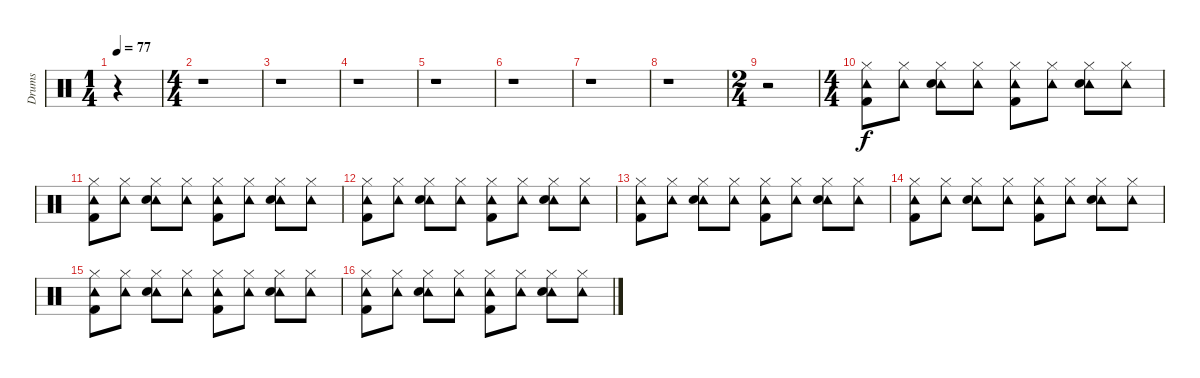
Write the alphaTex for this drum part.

\track ("Drums" "Drums") {instrument percussion}
\staff {score}
\articulation defaults
\ts (1 4)
\tempo 77
\clef neutral
\ks c
r.4{dy f} |
\ts (4 4)
r.1 |
r.1 |
r.1 |
r.1 |
r.1 |
r.1 |
r.1 |
\ts (2 4)
r.2 |
\ts (4 4)
("Tambourine (hit)" "Hi-Hat (closed)" "Kick (hit) 2").8 ("Tambourine (hit)" "Hi-Hat (closed)").8 ("Tambourine (hit)" "Hi-Hat (closed)" "Electric Snare (hit)").8 ("Tambourine (hit)" "Hi-Hat (closed)").8 ("Tambourine (hit)" "Hi-Hat (closed)" "Kick (hit) 2").8 ("Tambourine (hit)" "Hi-Hat (closed)").8 ("Tambourine (hit)" "Hi-Hat (closed)" "Electric Snare (hit)").8 ("Tambourine (hit)" "Hi-Hat (closed)").8 |
("Tambourine (hit)" "Hi-Hat (closed)" "Kick (hit) 2").8 ("Tambourine (hit)" "Hi-Hat (closed)").8 ("Tambourine (hit)" "Hi-Hat (closed)" "Electric Snare (hit)").8 ("Tambourine (hit)" "Hi-Hat (closed)").8 ("Tambourine (hit)" "Hi-Hat (closed)" "Kick (hit) 2").8 ("Tambourine (hit)" "Hi-Hat (closed)").8 ("Tambourine (hit)" "Hi-Hat (closed)" "Electric Snare (hit)").8 ("Tambourine (hit)" "Hi-Hat (closed)").8 |
("Tambourine (hit)" "Hi-Hat (closed)" "Kick (hit) 2").8 ("Tambourine (hit)" "Hi-Hat (closed)").8 ("Tambourine (hit)" "Hi-Hat (closed)" "Electric Snare (hit)").8 ("Tambourine (hit)" "Hi-Hat (closed)").8 ("Tambourine (hit)" "Hi-Hat (closed)" "Kick (hit) 2").8 ("Tambourine (hit)" "Hi-Hat (closed)").8 ("Tambourine (hit)" "Hi-Hat (closed)" "Electric Snare (hit)").8 ("Tambourine (hit)" "Hi-Hat (closed)").8 |
("Tambourine (hit)" "Hi-Hat (closed)" "Kick (hit) 2").8 ("Tambourine (hit)" "Hi-Hat (closed)").8 ("Tambourine (hit)" "Hi-Hat (closed)" "Electric Snare (hit)").8 ("Tambourine (hit)" "Hi-Hat (closed)").8 ("Tambourine (hit)" "Hi-Hat (closed)" "Kick (hit) 2").8 ("Tambourine (hit)" "Hi-Hat (closed)").8 ("Tambourine (hit)" "Hi-Hat (closed)" "Electric Snare (hit)").8 ("Tambourine (hit)" "Hi-Hat (closed)").8 |
("Tambourine (hit)" "Hi-Hat (closed)" "Kick (hit) 2").8 ("Tambourine (hit)" "Hi-Hat (closed)").8 ("Tambourine (hit)" "Hi-Hat (closed)" "Electric Snare (hit)").8 ("Tambourine (hit)" "Hi-Hat (closed)").8 ("Tambourine (hit)" "Hi-Hat (closed)" "Kick (hit) 2").8 ("Tambourine (hit)" "Hi-Hat (closed)").8 ("Tambourine (hit)" "Hi-Hat (closed)" "Electric Snare (hit)").8 ("Tambourine (hit)" "Hi-Hat (closed)").8 |
("Tambourine (hit)" "Hi-Hat (closed)" "Kick (hit) 2").8 ("Tambourine (hit)" "Hi-Hat (closed)").8 ("Tambourine (hit)" "Hi-Hat (closed)" "Electric Snare (hit)").8 ("Tambourine (hit)" "Hi-Hat (closed)").8 ("Tambourine (hit)" "Hi-Hat (closed)" "Kick (hit) 2").8 ("Tambourine (hit)" "Hi-Hat (closed)").8 ("Tambourine (hit)" "Hi-Hat (closed)" "Electric Snare (hit)").8 ("Tambourine (hit)" "Hi-Hat (closed)").8 |
("Tambourine (hit)" "Hi-Hat (closed)" "Kick (hit) 2").8 ("Tambourine (hit)" "Hi-Hat (closed)").8 ("Tambourine (hit)" "Hi-Hat (closed)" "Electric Snare (hit)").8 ("Tambourine (hit)" "Hi-Hat (closed)").8 ("Tambourine (hit)" "Hi-Hat (closed)" "Kick (hit) 2").8 ("Tambourine (hit)" "Hi-Hat (closed)").8 ("Tambourine (hit)" "Hi-Hat (closed)" "Electric Snare (hit)").8 ("Tambourine (hit)" "Hi-Hat (closed)").8
